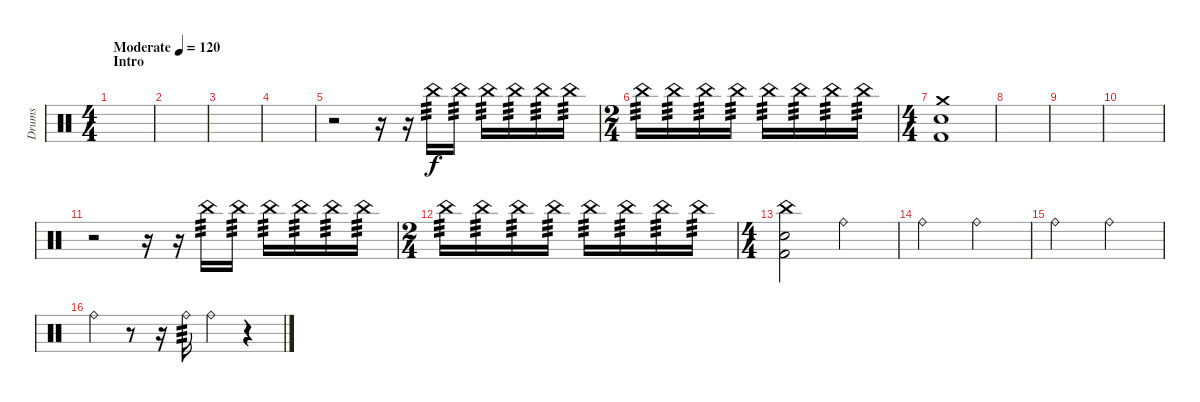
\track ("Drums " "Drums ") {instrument percussion}
\staff {score}
\articulation defaults
\ts (4 4)
\section ("" "Intro")
\tempo (120 "Moderate")
\clef neutral
\ks c
|
|
|
|
r.2 r.16 r.16 "China (hit)".16{tp 3 volume 3} "China (hit)".16{tp 3 volume 4} "China (hit)".16{tp 3 volume 5} "China (hit)".16{tp 3 volume 6} "China (hit)".16{tp 3 volume 7} "China (hit)".16{tp 3 volume 8} |
\ts (2 4)
"China (hit)".16{tp 3 volume 9} "China (hit)".16{tp 3 volume 10} "China (hit)".16{tp 3 volume 11} "China (hit)".16{tp 3 volume 12} "China (hit)".16{tp 3 volume 13} "China (hit)".16{tp 3 volume 14} "China (hit)".16{tp 3 volume 15} "China (hit)".16{tp 3 volume 16} |
\ts (4 4)
("Kick (hit) 2" "Crash medium (hit)" "Snare (hit) 2").1 |
|
|
|
r.2 r.16 r.16 "China (hit)".16{tp 3 volume 3} "China (hit)".16{tp 3 volume 4} "China (hit)".16{tp 3 volume 5} "China (hit)".16{tp 3 volume 6} "China (hit)".16{tp 3 volume 7} "China (hit)".16{tp 3 volume 8} |
\ts (2 4)
"China (hit)".16{tp 3 volume 9} "China (hit)".16{tp 3 volume 10} "China (hit)".16{tp 3 volume 11} "China (hit)".16{tp 3 volume 12} "China (hit)".16{tp 3 volume 13} "China (hit)".16{tp 3 volume 14} "China (hit)".16{tp 3 volume 15} "China (hit)".16{tp 3 volume 16} |
\ts (4 4)
("Snare (hit) 2" "Kick (hit) 2" "China (hit)").2{volume 13} "Ride (bell)".2 |
"Ride (bell)".2 "Ride (bell)".2 |
"Ride (bell)".2 "Ride (bell)".2 |
"Ride (bell)".4 r.8 r.16 "Ride (bell)".16{tp 3} "Ride (bell)".4 r.4
